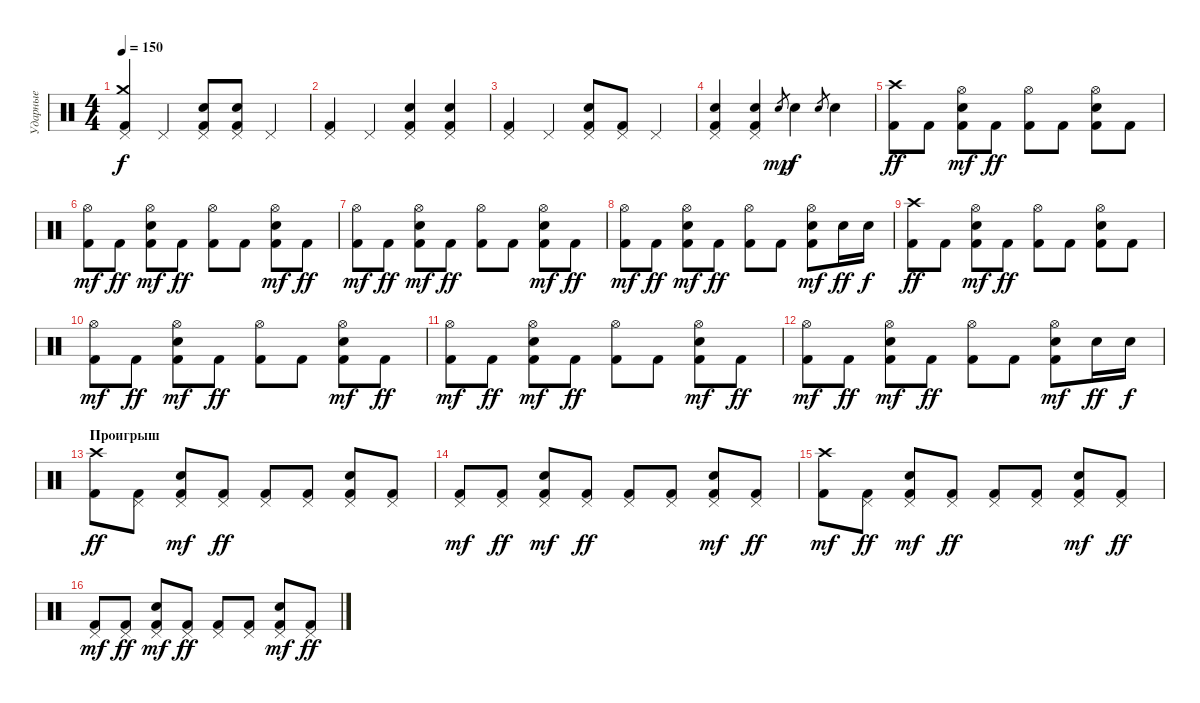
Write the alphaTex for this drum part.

\track ("Ударные" "Ударные") {instrument percussion}
\staff {score}
\articulation defaults
\ts (4 4)
\tempo 150
\clef neutral
\ks c
("Pedal Hi-Hat (hit)" "Crash medium (hit)" "Kick (hit) 2").4{dy f} "Pedal Hi-Hat (hit)".4 ("Pedal Hi-Hat (hit)" "Electric Snare (hit)" "Kick (hit) 2").8 ("Pedal Hi-Hat (hit)" "Electric Snare (hit)" "Kick (hit) 2").8 "Pedal Hi-Hat (hit)".4 |
("Pedal Hi-Hat (hit)" "Kick (hit) 2").4 "Pedal Hi-Hat (hit)".4 ("Pedal Hi-Hat (hit)" "Electric Snare (hit)" "Kick (hit) 2").4 ("Pedal Hi-Hat (hit)" "Electric Snare (hit)" "Kick (hit) 2").4 |
("Pedal Hi-Hat (hit)" "Kick (hit) 2").4 "Pedal Hi-Hat (hit)".4 ("Pedal Hi-Hat (hit)" "Electric Snare (hit)" "Kick (hit) 2").8 ("Pedal Hi-Hat (hit)" "Kick (hit) 2").8 "Pedal Hi-Hat (hit)".4 |
("Pedal Hi-Hat (hit)" "Electric Snare (hit)" "Kick (hit) 2").4 ("Pedal Hi-Hat (hit)" "Electric Snare (hit)" "Kick (hit) 2").4 "Electric Snare (hit)".8{gr dy mp} "Electric Snare (hit)".4{dy f} "Electric Snare (hit)".8{gr} "Electric Snare (hit)".4 |
("Crash high (hit)" "Kick (hit) 2").8{dy ff} "Kick (hit) 2".8 ("Kick (hit) 2" "Electric Snare (hit)" "Hi-Hat (open)").8{dy mf} "Kick (hit) 2".8{dy ff} ("Hi-Hat (open)" "Kick (hit) 2").8 "Kick (hit) 2".8 ("Kick (hit) 2" "Hi-Hat (open)" "Electric Snare (hit)").8 "Kick (hit) 2".8 |
("Kick (hit) 2" "Hi-Hat (open)").8{dy mf} "Kick (hit) 2".8{dy ff} ("Electric Snare (hit)" "Kick (hit) 2" "Hi-Hat (open)").8{dy mf} "Kick (hit) 2".8{dy ff} ("Hi-Hat (open)" "Kick (hit) 2").8 "Kick (hit) 2".8 ("Electric Snare (hit)" "Kick (hit) 2" "Hi-Hat (open)").8{dy mf} "Kick (hit) 2".8{dy ff} |
("Kick (hit) 2" "Hi-Hat (open)").8{dy mf} "Kick (hit) 2".8{dy ff} ("Electric Snare (hit)" "Kick (hit) 2" "Hi-Hat (open)").8{dy mf} "Kick (hit) 2".8{dy ff} ("Hi-Hat (open)" "Kick (hit) 2").8 "Kick (hit) 2".8 ("Electric Snare (hit)" "Kick (hit) 2" "Hi-Hat (open)").8{dy mf} "Kick (hit) 2".8{dy ff} |
("Kick (hit) 2" "Hi-Hat (open)").8{dy mf} "Kick (hit) 2".8{dy ff} ("Electric Snare (hit)" "Kick (hit) 2" "Hi-Hat (open)").8{dy mf} "Kick (hit) 2".8{dy ff} ("Hi-Hat (open)" "Kick (hit) 2").8 "Kick (hit) 2".8 ("Electric Snare (hit)" "Kick (hit) 2" "Hi-Hat (open)").8{dy mf} "Electric Snare (hit)".16{dy ff} "Electric Snare (hit)".16{dy f} |
("Crash high (hit)" "Kick (hit) 2").8{dy ff} "Kick (hit) 2".8 ("Kick (hit) 2" "Electric Snare (hit)" "Hi-Hat (open)").8{dy mf} "Kick (hit) 2".8{dy ff} ("Hi-Hat (open)" "Kick (hit) 2").8 "Kick (hit) 2".8 ("Kick (hit) 2" "Hi-Hat (open)" "Electric Snare (hit)").8 "Kick (hit) 2".8 |
("Kick (hit) 2" "Hi-Hat (open)").8{dy mf} "Kick (hit) 2".8{dy ff} ("Electric Snare (hit)" "Kick (hit) 2" "Hi-Hat (open)").8{dy mf} "Kick (hit) 2".8{dy ff} ("Hi-Hat (open)" "Kick (hit) 2").8 "Kick (hit) 2".8 ("Electric Snare (hit)" "Kick (hit) 2" "Hi-Hat (open)").8{dy mf} "Kick (hit) 2".8{dy ff} |
("Kick (hit) 2" "Hi-Hat (open)").8{dy mf} "Kick (hit) 2".8{dy ff} ("Electric Snare (hit)" "Kick (hit) 2" "Hi-Hat (open)").8{dy mf} "Kick (hit) 2".8{dy ff} ("Hi-Hat (open)" "Kick (hit) 2").8 "Kick (hit) 2".8 ("Electric Snare (hit)" "Kick (hit) 2" "Hi-Hat (open)").8{dy mf} "Kick (hit) 2".8{dy ff} |
("Kick (hit) 2" "Hi-Hat (open)").8{dy mf} "Kick (hit) 2".8{dy ff} ("Electric Snare (hit)" "Kick (hit) 2" "Hi-Hat (open)").8{dy mf} "Kick (hit) 2".8{dy ff} ("Hi-Hat (open)" "Kick (hit) 2").8 "Kick (hit) 2".8 ("Electric Snare (hit)" "Kick (hit) 2" "Hi-Hat (open)").8{dy mf} "Electric Snare (hit)".16{dy ff} "Electric Snare (hit)".16{dy f} |
\section ("" "Проигрыш")
("Crash high (hit)" "Kick (hit) 2").8{dy ff} ("Kick (hit) 2" "Pedal Hi-Hat (hit)").8 ("Kick (hit) 2" "Electric Snare (hit)" "Pedal Hi-Hat (hit)").8{dy mf} ("Kick (hit) 2" "Pedal Hi-Hat (hit)").8{dy ff} ("Pedal Hi-Hat (hit)" "Kick (hit) 2").8 ("Kick (hit) 2" "Pedal Hi-Hat (hit)").8 ("Kick (hit) 2" "Pedal Hi-Hat (hit)" "Electric Snare (hit)").8 ("Kick (hit) 2" "Pedal Hi-Hat (hit)").8 |
("Kick (hit) 2" "Pedal Hi-Hat (hit)").8{dy mf} ("Kick (hit) 2" "Pedal Hi-Hat (hit)").8{dy ff} ("Electric Snare (hit)" "Kick (hit) 2" "Pedal Hi-Hat (hit)").8{dy mf} ("Kick (hit) 2" "Pedal Hi-Hat (hit)").8{dy ff} ("Pedal Hi-Hat (hit)" "Kick (hit) 2").8 ("Kick (hit) 2" "Pedal Hi-Hat (hit)").8 ("Electric Snare (hit)" "Kick (hit) 2" "Pedal Hi-Hat (hit)").8{dy mf} ("Kick (hit) 2" "Pedal Hi-Hat (hit)").8{dy ff} |
("Kick (hit) 2" "Crash high (hit)").8{dy mf} ("Kick (hit) 2" "Pedal Hi-Hat (hit)").8{dy ff} ("Electric Snare (hit)" "Kick (hit) 2" "Pedal Hi-Hat (hit)").8{dy mf} ("Kick (hit) 2" "Pedal Hi-Hat (hit)").8{dy ff} ("Pedal Hi-Hat (hit)" "Kick (hit) 2").8 ("Kick (hit) 2" "Pedal Hi-Hat (hit)").8 ("Electric Snare (hit)" "Kick (hit) 2" "Pedal Hi-Hat (hit)").8{dy mf} ("Kick (hit) 2" "Pedal Hi-Hat (hit)").8{dy ff} |
("Kick (hit) 2" "Pedal Hi-Hat (hit)").8{dy mf} ("Kick (hit) 2" "Pedal Hi-Hat (hit)").8{dy ff} ("Electric Snare (hit)" "Kick (hit) 2" "Pedal Hi-Hat (hit)").8{dy mf} ("Kick (hit) 2" "Pedal Hi-Hat (hit)").8{dy ff} ("Pedal Hi-Hat (hit)" "Kick (hit) 2").8 ("Kick (hit) 2" "Pedal Hi-Hat (hit)").8 ("Electric Snare (hit)" "Kick (hit) 2" "Pedal Hi-Hat (hit)").8{dy mf} ("Kick (hit) 2" "Pedal Hi-Hat (hit)").8{dy ff}
